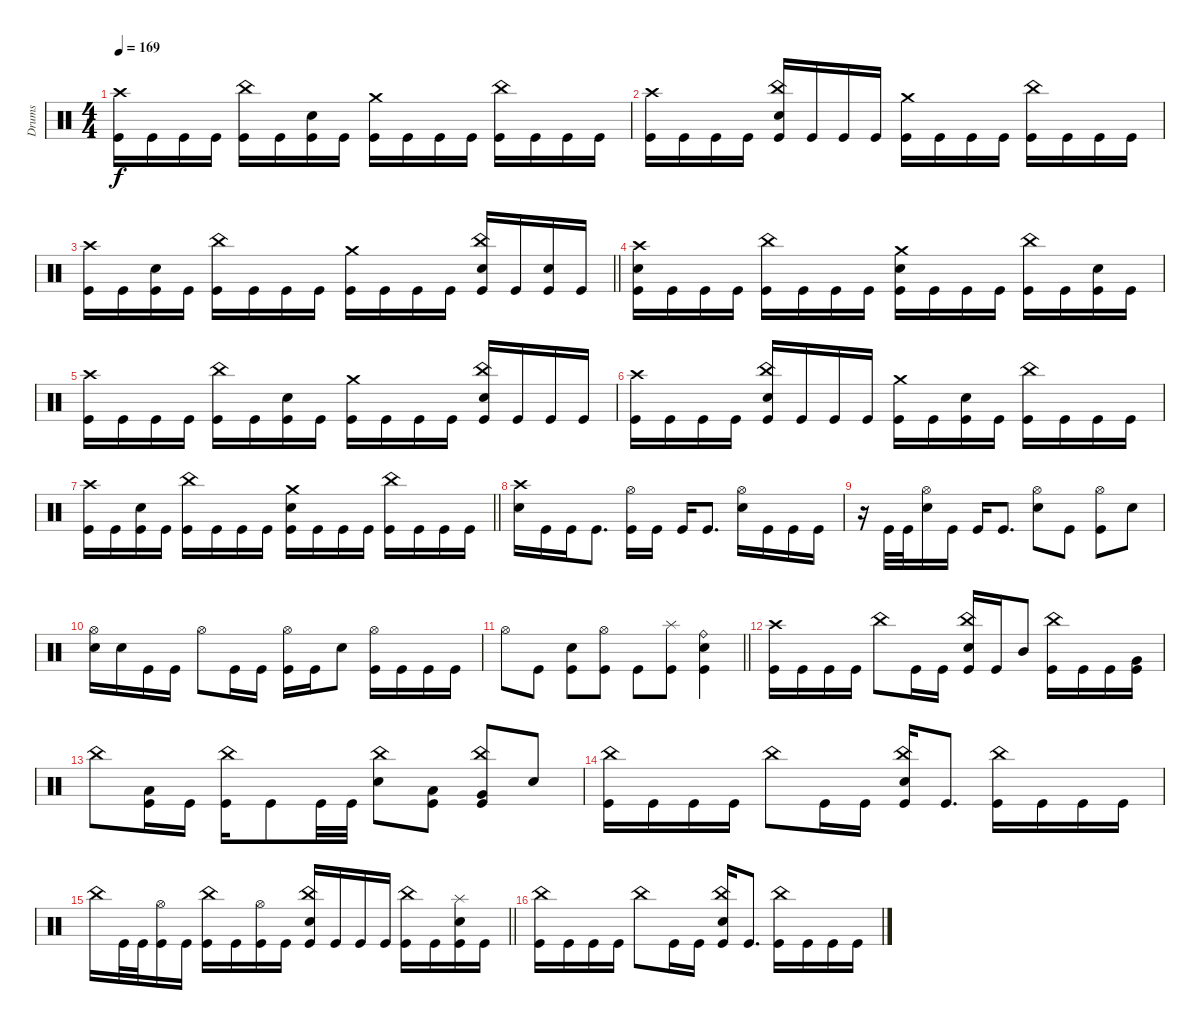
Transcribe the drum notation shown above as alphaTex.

\track ("Drums" "Drums") {instrument percussion}
\staff
\articulation defaults
\ts (4 4)
\tempo 169
\clef neutral
\ks c
("Crash high (hit)" "Kick (hit)").16{dy f} "Kick (hit)".16 "Kick (hit)".16 "Kick (hit)".16 ("China (hit)" "Kick (hit)").16 "Kick (hit)".16 ("Electric Snare (hit)" "Kick (hit)").16 "Kick (hit)".16 ("Crash medium (hit)" "Kick (hit)").16 "Kick (hit)".16 "Kick (hit)".16 "Kick (hit)".16 ("China (hit)" "Kick (hit)").16 "Kick (hit)".16 "Kick (hit)".16 "Kick (hit)".16 |
("Crash high (hit)" "Kick (hit)").16 "Kick (hit)".16 "Kick (hit)".16 "Kick (hit)".16 ("China (hit)" "Electric Snare (hit)" "Kick (hit)").16 "Kick (hit)".16 "Kick (hit)".16 "Kick (hit)".16 ("Crash medium (hit)" "Kick (hit)").16 "Kick (hit)".16 "Kick (hit)".16 "Kick (hit)".16 ("China (hit)" "Kick (hit)").16 "Kick (hit)".16 "Kick (hit)".16 "Kick (hit)".16 |
\barLineRight lightlight
("Crash high (hit)" "Kick (hit)").16 "Kick (hit)".16 ("Electric Snare (hit)" "Kick (hit)").16 "Kick (hit)".16 ("China (hit)" "Kick (hit)").16 "Kick (hit)".16 "Kick (hit)".16 "Kick (hit)".16 ("Crash medium (hit)" "Kick (hit)").16 "Kick (hit)".16 "Kick (hit)".16 "Kick (hit)".16 ("China (hit)" "Electric Snare (hit)" "Kick (hit)").16 "Kick (hit)".16 ("Electric Snare (hit)" "Kick (hit)").16 "Kick (hit)".16 |
("Crash high (hit)" "Electric Snare (hit)" "Kick (hit)").16 "Kick (hit)".16 "Kick (hit)".16 "Kick (hit)".16 ("China (hit)" "Kick (hit)").16 "Kick (hit)".16 "Kick (hit)".16 "Kick (hit)".16 ("Crash medium (hit)" "Electric Snare (hit)" "Kick (hit)").16 "Kick (hit)".16 "Kick (hit)".16 "Kick (hit)".16 ("China (hit)" "Kick (hit)").16 "Kick (hit)".16 ("Electric Snare (hit)" "Kick (hit)").16 "Kick (hit)".16 |
("Crash high (hit)" "Kick (hit)").16 "Kick (hit)".16 "Kick (hit)".16 "Kick (hit)".16 ("China (hit)" "Kick (hit)").16 "Kick (hit)".16 ("Electric Snare (hit)" "Kick (hit)").16 "Kick (hit)".16 ("Crash medium (hit)" "Kick (hit)").16 "Kick (hit)".16 "Kick (hit)".16 "Kick (hit)".16 ("China (hit)" "Electric Snare (hit)" "Kick (hit)").16 "Kick (hit)".16 "Kick (hit)".16 "Kick (hit)".16 |
("Crash high (hit)" "Kick (hit)").16 "Kick (hit)".16 "Kick (hit)".16 "Kick (hit)".16 ("China (hit)" "Electric Snare (hit)" "Kick (hit)").16 "Kick (hit)".16 "Kick (hit)".16 "Kick (hit)".16 ("Crash medium (hit)" "Kick (hit)").16 "Kick (hit)".16 ("Electric Snare (hit)" "Kick (hit)").16 "Kick (hit)".16 ("China (hit)" "Kick (hit)").16 "Kick (hit)".16 "Kick (hit)".16 "Kick (hit)".16 |
\barLineRight lightlight
("Crash high (hit)" "Kick (hit)").16 "Kick (hit)".16 ("Electric Snare (hit)" "Kick (hit)").16 "Kick (hit)".16 ("China (hit)" "Kick (hit)").16 "Kick (hit)".16 "Kick (hit)".16 "Kick (hit)".16 ("Crash medium (hit)" "Electric Snare (hit)" "Kick (hit)").16 "Kick (hit)".16 "Kick (hit)".16 "Kick (hit)".16 ("China (hit)" "Kick (hit)").16 "Kick (hit)".16 "Kick (hit)".16 "Kick (hit)".16 |
\section ("" "")
("Crash high (hit)" "Electric Snare (hit)").16 "Kick (hit)".16 "Kick (hit)".16 "Kick (hit)".8{d} ("Hi-Hat (open)" "Kick (hit)").16 "Kick (hit)".16 "Kick (hit)".16 "Kick (hit)".8{d} ("Hi-Hat (open)" "Electric Snare (hit)").16 "Kick (hit)".16 "Kick (hit)".16 "Kick (hit)".16 |
r.16 "Kick (hit)".32 "Kick (hit)".32 ("Hi-Hat (open)" "Electric Snare (hit)").16 "Kick (hit)".16 "Kick (hit)".16 "Kick (hit)".8{d} ("Hi-Hat (open)" "Electric Snare (hit)").8 "Kick (hit)".8 ("Hi-Hat (open)" "Kick (hit)").8 "Electric Snare (hit)".8 |
("Hi-Hat (open)" "Electric Snare (hit)").16 "Electric Snare (hit)".16 "Kick (hit)".16 "Kick (hit)".16 "Hi-Hat (open)".8 "Kick (hit)".16 "Kick (hit)".16 ("Hi-Hat (open)" "Kick (hit)").16 "Kick (hit)".16 "Electric Snare (hit)".8 ("Hi-Hat (open)" "Kick (hit)").16 "Kick (hit)".16 "Kick (hit)".16 "Kick (hit)".16 |
\barLineRight lightlight "Hi-Hat (open)".8 "Kick (hit)".8
("Electric Snare (hit)" "Kick (hit)").8 ("Hi-Hat (open)" "Kick (hit)").8 "Kick (hit)".8 ("Splash (hit)" "Kick (hit)").8 ("Ride (bell)" "Electric Snare (hit)" "Kick (hit)").4 |
("Crash high (hit)" "Kick (hit)").16 "Kick (hit)".16 "Kick (hit)".16 "Kick (hit)".16 "China (hit)".8 "Kick (hit)".16 "Kick (hit)".16 ("China (hit)" "Electric Snare (hit)" "Kick (hit)").16 "Kick (hit)".16 "Mid Tom (hit)".8 ("China (hit)" "Kick (hit)").16 "Kick (hit)".16 "Kick (hit)".16 ("Very Low Tom (hit)" "Kick (hit)").16 |
"China (hit)".8 ("Low Tom (hit)" "Kick (hit)").16 "Kick (hit)".16 ("China (hit)" "Kick (hit)").16 "Kick (hit)".8 "Kick (hit)".32 "Kick (hit)".32 ("China (hit)" "Electric Snare (hit)").8 ("Low Tom (hit)" "Kick (hit)").8 ("China (hit)" "Very Low Tom (hit)" "Kick (hit)").8 "Electric Snare (hit)".8 |
("China (hit)" "Kick (hit)").16 "Kick (hit)".16 "Kick (hit)".16 "Kick (hit)".16 "China (hit)".8 "Kick (hit)".16 "Kick (hit)".16 ("China (hit)" "Electric Snare (hit)" "Kick (hit)").16 "Kick (hit)".8{d} ("China (hit)" "Kick (hit)").16 "Kick (hit)".16 "Kick (hit)".16 "Kick (hit)".16 |
\barLineRight lightlight "China (hit)".16 "Kick (hit)".32 "Kick (hit)".32
("Hi-Hat (open)" "Kick (hit)").16 "Kick (hit)".16 ("China (hit)" "Kick (hit)").16 "Kick (hit)".16 ("Hi-Hat (open)" "Kick (hit)").16 "Kick (hit)".16 ("China (hit)" "Electric Snare (hit)" "Kick (hit)").16 "Kick (hit)".16 "Kick (hit)".16 "Kick (hit)".16 ("China (hit)" "Kick (hit)").16 "Kick (hit)".16 ("Splash (hit)" "Electric Snare (hit)" "Kick (hit)").16 "Kick (hit)".16 |
("China (hit)" "Kick (hit)").16 "Kick (hit)".16 "Kick (hit)".16 "Kick (hit)".16 "China (hit)".8 "Kick (hit)".16 "Kick (hit)".16 ("China (hit)" "Electric Snare (hit)" "Kick (hit)").16 "Kick (hit)".8{d} ("China (hit)" "Kick (hit)").16 "Kick (hit)".16 "Kick (hit)".16 "Kick (hit)".16
